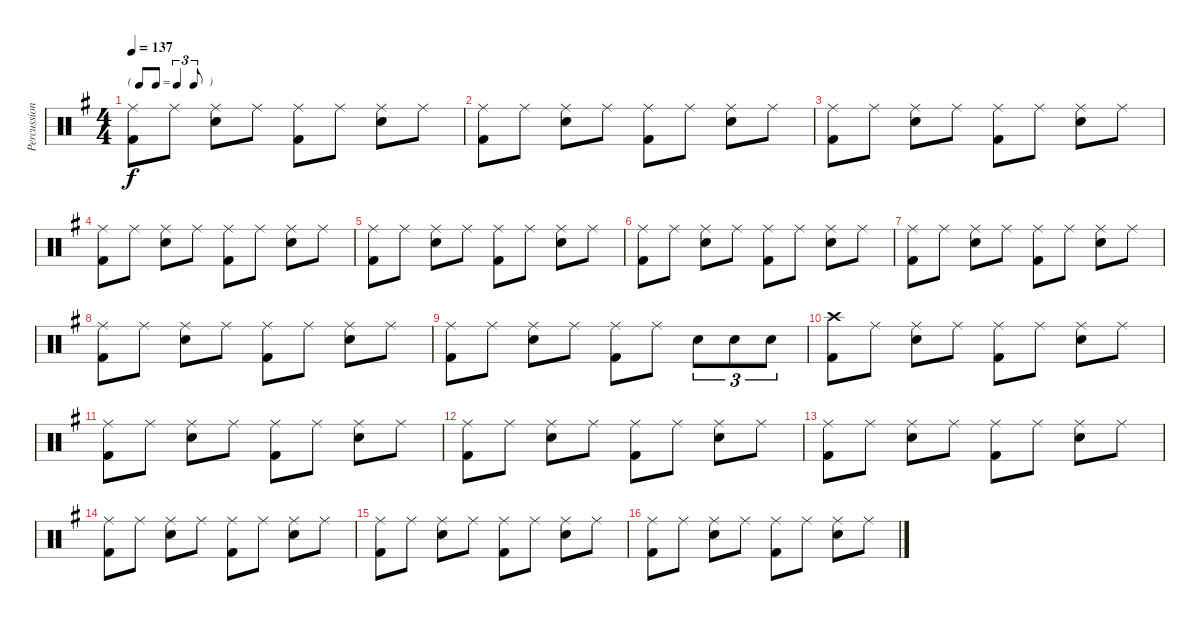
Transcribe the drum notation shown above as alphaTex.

\track ("Percussion" "Percussion") {instrument percussion}
\staff {score}
\articulation defaults
\ts (4 4)
\tf triplet8th
\tempo 137
\clef neutral
\ks g
("Ride (middle)" "Kick (hit) 2").8{dy f} "Ride (middle)".8 ("Ride (middle)" "Snare (hit) 2").8 "Ride (middle)".8 ("Ride (middle)" "Kick (hit) 2").8 "Ride (middle)".8 ("Ride (middle)" "Snare (hit) 2").8 "Ride (middle)".8 |
("Ride (middle)" "Kick (hit) 2").8 "Ride (middle)".8 ("Ride (middle)" "Snare (hit) 2").8 "Ride (middle)".8 ("Ride (middle)" "Kick (hit) 2").8 "Ride (middle)".8 ("Ride (middle)" "Snare (hit) 2").8 "Ride (middle)".8 |
("Ride (middle)" "Kick (hit) 2").8 "Ride (middle)".8 ("Ride (middle)" "Snare (hit) 2").8 "Ride (middle)".8 ("Ride (middle)" "Kick (hit) 2").8 "Ride (middle)".8 ("Ride (middle)" "Snare (hit) 2").8 "Ride (middle)".8 |
("Ride (middle)" "Kick (hit) 2").8 "Ride (middle)".8 ("Ride (middle)" "Snare (hit) 2").8 "Ride (middle)".8 ("Ride (middle)" "Kick (hit) 2").8 "Ride (middle)".8 ("Ride (middle)" "Snare (hit) 2").8 "Ride (middle)".8 |
("Ride (middle)" "Kick (hit) 2").8 "Ride (middle)".8 ("Ride (middle)" "Snare (hit) 2").8 "Ride (middle)".8 ("Ride (middle)" "Kick (hit) 2").8 "Ride (middle)".8 ("Ride (middle)" "Snare (hit) 2").8 "Ride (middle)".8 |
("Ride (middle)" "Kick (hit) 2").8 "Ride (middle)".8 ("Ride (middle)" "Snare (hit) 2").8 "Ride (middle)".8 ("Ride (middle)" "Kick (hit) 2").8 "Ride (middle)".8 ("Ride (middle)" "Snare (hit) 2").8 "Ride (middle)".8 |
("Ride (middle)" "Kick (hit) 2").8 "Ride (middle)".8 ("Ride (middle)" "Snare (hit) 2").8 "Ride (middle)".8 ("Ride (middle)" "Kick (hit) 2").8 "Ride (middle)".8 ("Ride (middle)" "Snare (hit) 2").8 "Ride (middle)".8 |
("Ride (middle)" "Kick (hit) 2").8 "Ride (middle)".8 ("Ride (middle)" "Snare (hit) 2").8 "Ride (middle)".8 ("Ride (middle)" "Kick (hit) 2").8 "Ride (middle)".8 ("Ride (middle)" "Snare (hit) 2").8 "Ride (middle)".8 |
("Ride (middle)" "Kick (hit) 2").8 "Ride (middle)".8 ("Ride (middle)" "Snare (hit) 2").8 "Ride (middle)".8 ("Ride (middle)" "Kick (hit) 2").8 "Ride (middle)".8 "Snare (hit) 2".8{tu (3 2)} "Snare (hit) 2".8{tu (3 2)} "Snare (hit) 2".8{tu (3 2)} |
("Crash high (hit)" "Kick (hit) 2").8 "Ride (middle)".8 ("Ride (middle)" "Snare (hit) 2").8 "Ride (middle)".8 ("Ride (middle)" "Kick (hit) 2").8 "Ride (middle)".8 ("Ride (middle)" "Snare (hit) 2").8 "Ride (middle)".8 |
("Ride (middle)" "Kick (hit) 2").8 "Ride (middle)".8 ("Ride (middle)" "Snare (hit) 2").8 "Ride (middle)".8 ("Ride (middle)" "Kick (hit) 2").8 "Ride (middle)".8 ("Ride (middle)" "Snare (hit) 2").8 "Ride (middle)".8 |
("Ride (middle)" "Kick (hit) 2").8 "Ride (middle)".8 ("Ride (middle)" "Snare (hit) 2").8 "Ride (middle)".8 ("Ride (middle)" "Kick (hit) 2").8 "Ride (middle)".8 ("Ride (middle)" "Snare (hit) 2").8 "Ride (middle)".8 |
("Ride (middle)" "Kick (hit) 2").8 "Ride (middle)".8 ("Ride (middle)" "Snare (hit) 2").8 "Ride (middle)".8 ("Ride (middle)" "Kick (hit) 2").8 "Ride (middle)".8 ("Ride (middle)" "Snare (hit) 2").8 "Ride (middle)".8 |
("Ride (middle)" "Kick (hit) 2").8 "Ride (middle)".8 ("Ride (middle)" "Snare (hit) 2").8 "Ride (middle)".8 ("Ride (middle)" "Kick (hit) 2").8 "Ride (middle)".8 ("Ride (middle)" "Snare (hit) 2").8 "Ride (middle)".8 |
("Ride (middle)" "Kick (hit) 2").8 "Ride (middle)".8 ("Ride (middle)" "Snare (hit) 2").8 "Ride (middle)".8 ("Ride (middle)" "Kick (hit) 2").8 "Ride (middle)".8 ("Ride (middle)" "Snare (hit) 2").8 "Ride (middle)".8 |
("Ride (middle)" "Kick (hit) 2").8 "Ride (middle)".8 ("Ride (middle)" "Snare (hit) 2").8 "Ride (middle)".8 ("Ride (middle)" "Kick (hit) 2").8 "Ride (middle)".8 ("Ride (middle)" "Snare (hit) 2").8 "Ride (middle)".8
